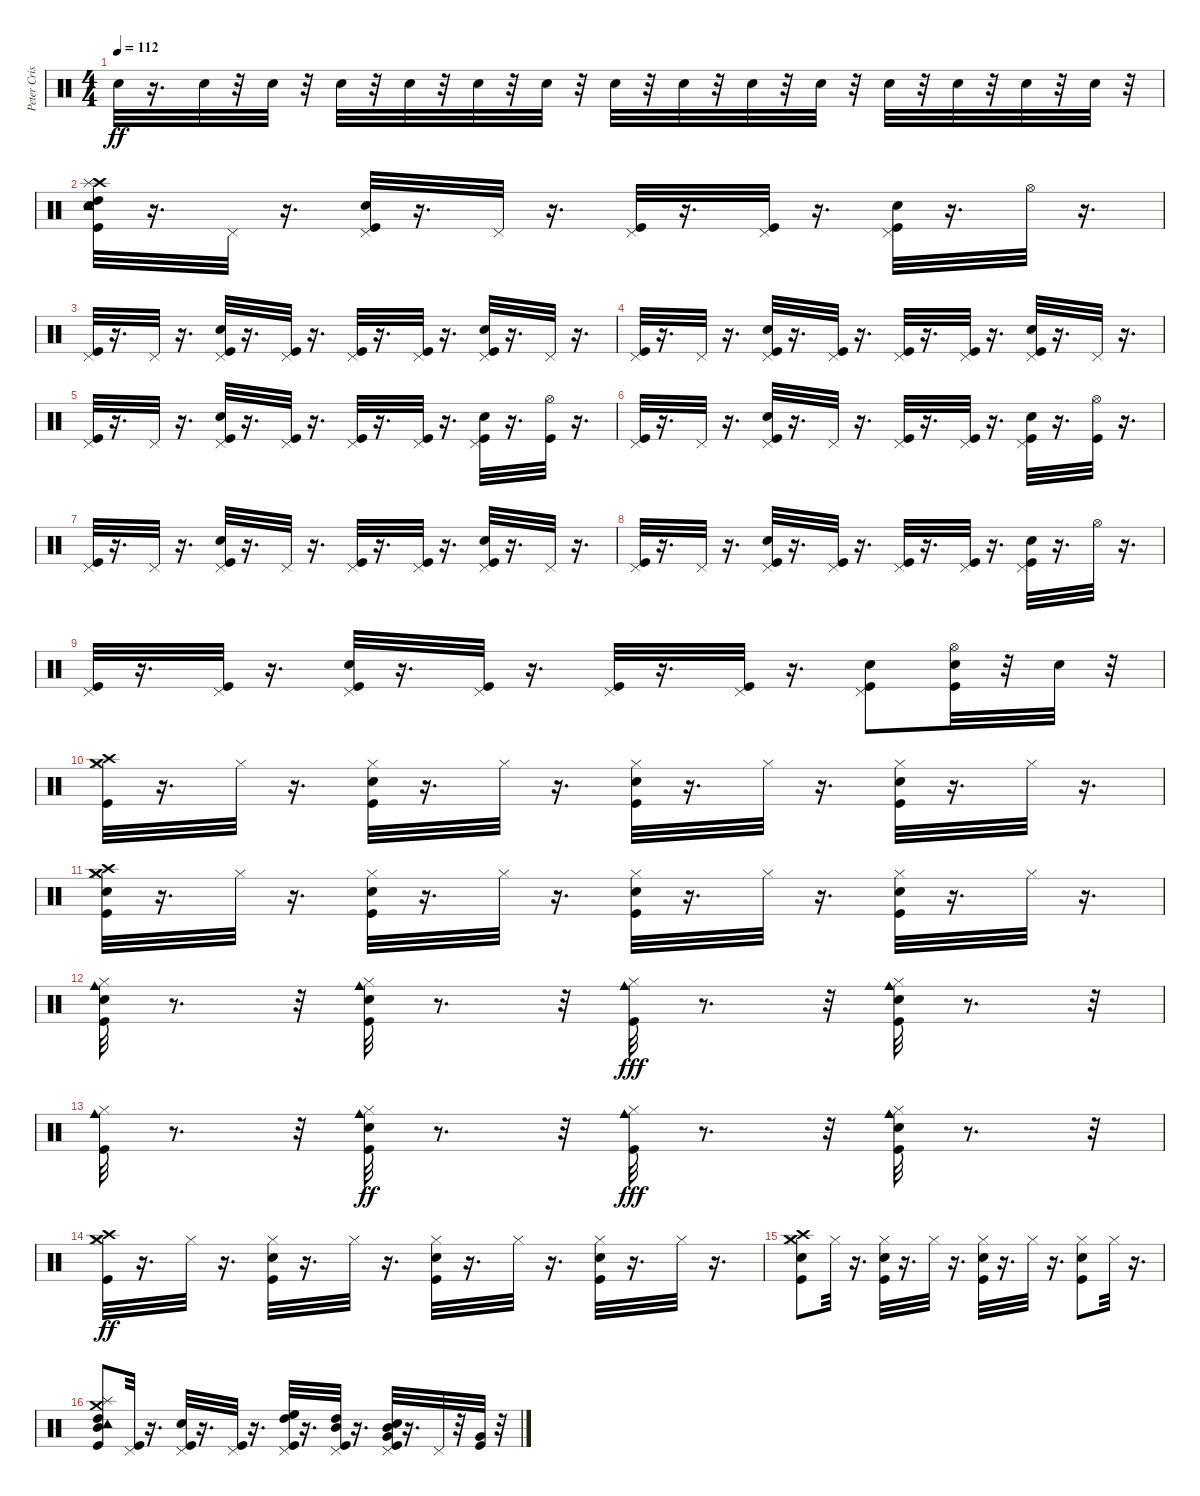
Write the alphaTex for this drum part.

\track ("Peter Criss" "Peter Cris") {instrument percussion}
\staff {score}
\articulation defaults
\ts (4 4)
\tempo 112
\clef neutral
\ks c "Electric Snare (hit)".32{dy ff}
r.16{d} "Electric Snare (hit)".32 r.32 "Electric Snare (hit)".32 r.32 "Electric Snare (hit)".32 r.32 "Electric Snare (hit)".32 r.32 "Electric Snare (hit)".32 r.32 "Electric Snare (hit)".32 r.32 "Electric Snare (hit)".32 r.32 "Electric Snare (hit)".32 r.32 "Electric Snare (hit)".32 r.32 "Electric Snare (hit)".32 r.32 "Electric Snare (hit)".32 r.32 "Electric Snare (hit)".32 r.32 "Electric Snare (hit)".32 r.32 "Electric Snare (hit)".32 r.32 |
("Crash high (hit)" "Kick (hit)" "Tambourine (hit)" "Snare (hit) 2" "Splash (hit)" "High Tom (hit)").32 r.16{d} "Pedal Hi-Hat (hit)".32 r.16{d} ("Snare (hit) 2" "Pedal Hi-Hat (hit)" "Kick (hit)").32 r.16{d} "Pedal Hi-Hat (hit)".32 r.16{d} ("Pedal Hi-Hat (hit)" "Kick (hit)").32 r.16{d} ("Pedal Hi-Hat (hit)" "Kick (hit)").32 r.16{d} ("Pedal Hi-Hat (hit)" "Kick (hit)" "Snare (hit) 2").32 r.16{d} "Hi-Hat (open)".32 r.16{d} |
("Pedal Hi-Hat (hit)" "Kick (hit)").32 r.16{d} "Pedal Hi-Hat (hit)".32 r.16{d} ("Kick (hit)" "Snare (hit) 2" "Pedal Hi-Hat (hit)").32 r.16{d} ("Pedal Hi-Hat (hit)" "Kick (hit)").32 r.16{d} ("Pedal Hi-Hat (hit)" "Kick (hit)").32 r.16{d} ("Pedal Hi-Hat (hit)" "Kick (hit)").32 r.16{d} ("Snare (hit) 2" "Kick (hit)" "Pedal Hi-Hat (hit)").32 r.16{d} "Pedal Hi-Hat (hit)".32 r.16{d} |
("Pedal Hi-Hat (hit)" "Kick (hit)").32 r.16{d} "Pedal Hi-Hat (hit)".32 r.16{d} ("Snare (hit) 2" "Kick (hit)" "Pedal Hi-Hat (hit)").32 r.16{d} ("Kick (hit)" "Pedal Hi-Hat (hit)").32 r.16{d} ("Pedal Hi-Hat (hit)" "Kick (hit)").32 r.16{d} ("Pedal Hi-Hat (hit)" "Kick (hit)").32 r.16{d} ("Pedal Hi-Hat (hit)" "Snare (hit) 2" "Kick (hit)").32 r.16{d} "Pedal Hi-Hat (hit)".32 r.16{d} |
("Pedal Hi-Hat (hit)" "Kick (hit)").32 r.16{d} "Pedal Hi-Hat (hit)".32 r.16{d} ("Kick (hit)" "Pedal Hi-Hat (hit)" "Snare (hit) 2").32 r.16{d} ("Pedal Hi-Hat (hit)" "Kick (hit)").32 r.16{d} ("Pedal Hi-Hat (hit)" "Kick (hit)").32 r.16{d} ("Kick (hit)" "Pedal Hi-Hat (hit)").32 r.16{d} ("Kick (hit)" "Snare (hit) 2" "Pedal Hi-Hat (hit)").32 r.16{d} ("Hi-Hat (open)" "Kick (hit)").32 r.16{d} |
("Pedal Hi-Hat (hit)" "Kick (hit)").32 r.16{d} "Pedal Hi-Hat (hit)".32 r.16{d} ("Pedal Hi-Hat (hit)" "Kick (hit)" "Snare (hit) 2").32 r.16{d} "Pedal Hi-Hat (hit)".32 r.16{d} ("Kick (hit)" "Pedal Hi-Hat (hit)").32 r.16{d} ("Kick (hit)" "Pedal Hi-Hat (hit)").32 r.16{d} ("Kick (hit)" "Snare (hit) 2" "Pedal Hi-Hat (hit)").32 r.16{d} ("Kick (hit)" "Hi-Hat (open)").32 r.16{d} |
("Kick (hit)" "Pedal Hi-Hat (hit)").32 r.16{d} "Pedal Hi-Hat (hit)".32 r.16{d} ("Pedal Hi-Hat (hit)" "Kick (hit)" "Snare (hit) 2").32 r.16{d} "Pedal Hi-Hat (hit)".32 r.16{d} ("Pedal Hi-Hat (hit)" "Kick (hit)").32 r.16{d} ("Pedal Hi-Hat (hit)" "Kick (hit)").32 r.16{d} ("Snare (hit) 2" "Kick (hit)" "Pedal Hi-Hat (hit)").32 r.16{d} "Pedal Hi-Hat (hit)".32 r.16{d} |
("Kick (hit)" "Pedal Hi-Hat (hit)").32 r.16{d} "Pedal Hi-Hat (hit)".32 r.16{d} ("Pedal Hi-Hat (hit)" "Snare (hit) 2" "Kick (hit)").32 r.16{d} ("Kick (hit)" "Pedal Hi-Hat (hit)").32 r.16{d} ("Pedal Hi-Hat (hit)" "Kick (hit)").32 r.16{d} ("Kick (hit)" "Pedal Hi-Hat (hit)").32 r.16{d} ("Snare (hit) 2" "Pedal Hi-Hat (hit)" "Kick (hit)").32 r.16{d} "Hi-Hat (open)".32 r.16{d} |
("Kick (hit)" "Pedal Hi-Hat (hit)").32 r.16{d} ("Kick (hit)" "Pedal Hi-Hat (hit)").32 r.16{d} ("Snare (hit) 2" "Pedal Hi-Hat (hit)" "Kick (hit)").32 r.16{d} ("Pedal Hi-Hat (hit)" "Kick (hit)").32 r.16{d} ("Pedal Hi-Hat (hit)" "Kick (hit)").32 r.16{d} ("Kick (hit)" "Pedal Hi-Hat (hit)").32 r.16{d} ("Pedal Hi-Hat (hit)" "Kick (hit)" "Snare (hit) 2").8 ("Kick (hit)" "Hi-Hat (open)" "Snare (hit) 2").32 r.32 "Snare (hit) 2".32 r.32 |
("Hi-Hat (closed)" "Crash high (hit)" "Crash medium (hit)" "Kick (hit)").32 r.16{d} "Hi-Hat (closed)".32 r.16{d} ("Hi-Hat (closed)" "Kick (hit)" "Snare (hit) 2").32 r.16{d} "Hi-Hat (closed)".32 r.16{d} ("Kick (hit)" "Hi-Hat (closed)" "Snare (hit) 2").32 r.16{d} "Hi-Hat (closed)".32 r.16{d} ("Kick (hit)" "Hi-Hat (closed)" "Snare (hit) 2").32 r.16{d} "Hi-Hat (closed)".32 r.16{d} |
("Hi-Hat (closed)" "Crash medium (hit)" "Crash high (hit)" "Snare (hit) 2" "Kick (hit)").32 r.16{d} "Hi-Hat (closed)".32 r.16{d} ("Kick (hit)" "Snare (hit) 2" "Hi-Hat (closed)").32 r.16{d} "Hi-Hat (closed)".32 r.16{d} ("Hi-Hat (closed)" "Snare (hit) 2" "Kick (hit)").32 r.16{d} "Hi-Hat (closed)".32 r.16{d} ("Hi-Hat (closed)" "Kick (hit)" "Snare (hit) 2").32 r.16{d} "Hi-Hat (closed)".32 r.16{d} |
("Cowbell medium (hit)" "Snare (hit) 2" "Kick (hit)" "Hi-Hat (closed)").32 r.8{d} r.32 ("Cowbell medium (hit)" "Hi-Hat (closed)" "Kick (hit)" "Snare (hit) 2").32 r.8{d} r.32 ("Hi-Hat (closed)" "Kick (hit)" "Cowbell medium (hit)").32{dy fff} r.8{d} r.32 ("Hi-Hat (closed)" "Cowbell medium (hit)" "Kick (hit)" "Snare (hit) 2").32 r.8{d} r.32 |
("Hi-Hat (closed)" "Kick (hit)" "Cowbell medium (hit)").32 r.8{d} r.32 ("Cowbell medium (hit)" "Snare (hit) 2" "Hi-Hat (closed)" "Kick (hit)").32{dy ff} r.8{d} r.32 ("Kick (hit)" "Cowbell medium (hit)" "Hi-Hat (closed)").32{dy fff} r.8{d} r.32 ("Hi-Hat (closed)" "Kick (hit)" "Snare (hit) 2" "Cowbell medium (hit)").32 r.8{d} r.32 |
("Kick (hit)" "Hi-Hat (closed)" "Crash medium (hit)" "Crash high (hit)").32{dy ff} r.16{d} "Hi-Hat (closed)".32 r.16{d} ("Kick (hit)" "Snare (hit) 2" "Hi-Hat (closed)").32 r.16{d} "Hi-Hat (closed)".32 r.16{d} ("Kick (hit)" "Hi-Hat (closed)" "Snare (hit) 2").32 r.16{d} "Hi-Hat (closed)".32 r.16{d} ("Hi-Hat (closed)" "Snare (hit) 2" "Kick (hit)").32 r.16{d} "Hi-Hat (closed)".32 r.16{d} |
("Crash high (hit)" "Kick (hit)" "Crash medium (hit)" "Hi-Hat (closed)" "Snare (hit) 2").8 "Hi-Hat (closed)".32 r.16{d} ("Kick (hit)" "Snare (hit) 2" "Hi-Hat (closed)").32 r.16{d} "Hi-Hat (closed)".32 r.16{d} ("Snare (hit) 2" "Kick (hit)" "Hi-Hat (closed)").32 r.16{d} "Hi-Hat (closed)".32 r.16{d} ("Snare (hit) 2" "Kick (hit)" "Hi-Hat (closed)").8 "Hi-Hat (closed)".32 r.16{d} |
("Tambourine (hit)" "Crash medium (hit)" "High Tom (hit)" "Kick (hit)" "Mid Tom (hit)" "Splash (hit)").8 ("Pedal Hi-Hat (hit)" "Kick (hit)").32 r.16{d} ("Snare (hit) 2" "Kick (hit)" "Pedal Hi-Hat (hit)").32 r.16{d} ("Pedal Hi-Hat (hit)" "Kick (hit)").32 r.16{d} ("Pedal Hi-Hat (hit)" "High Floor Tom (hit)" "Kick (hit)" "High Tom (hit)").32 r.16{d} ("Pedal Hi-Hat (hit)" "High Tom (hit)" "Mid Tom (hit)" "Kick (hit)").32 r.16{d} ("Snare (hit) 2" "Pedal Hi-Hat (hit)" "Very Low Tom (hit)" "Kick (hit)" "Mid Tom (hit)").32 r.16{d} "Pedal Hi-Hat (hit)".32 r.32 ("Kick (hit)" "Very Low Tom (hit)").32 r.32
